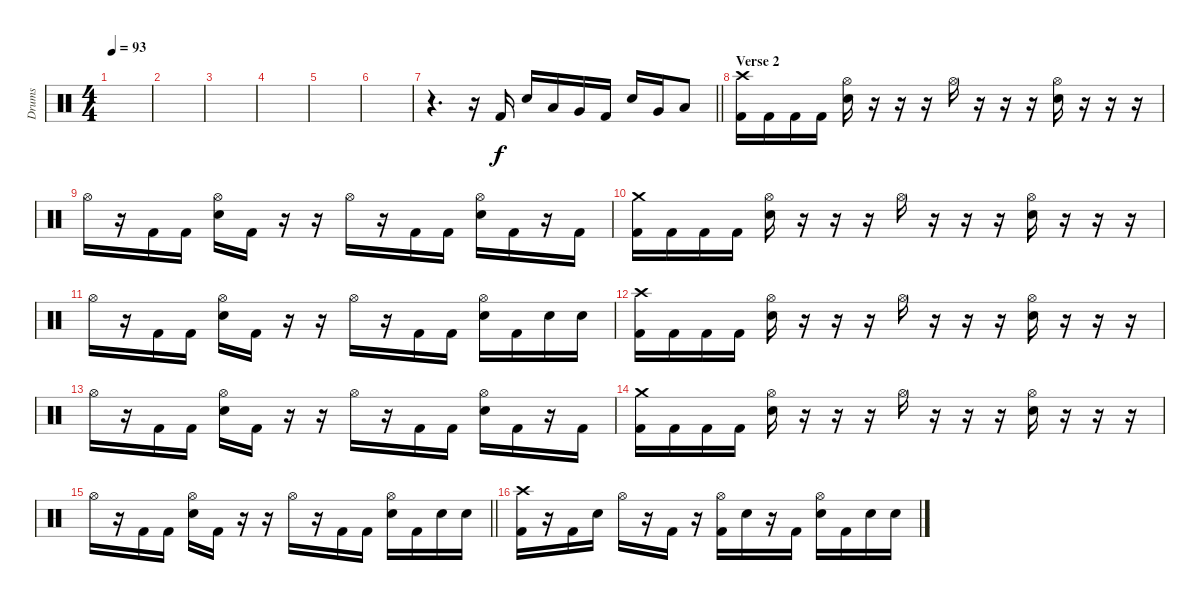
\track ("Drums" "Drums") {instrument percussion}
\staff {score}
\articulation defaults
\ts (4 4)
\tempo 93
\clef neutral
\ks c
|
|
|
|
|
|
\barLineRight lightlight
r.4{d} r.16 "Kick (hit) 2".16 "Snare (hit) 2".16 "Low Tom (hit)".16 "Very Low Tom (hit)".16 "Kick (hit) 2".16 "Snare (hit) 2".16 "Very Low Tom (hit)".16 "Low Floor Tom (hit)".8 |
\section ("" "Verse 2")
("Kick (hit) 2" "Crash high (hit)").16 "Kick (hit) 2".16 "Kick (hit) 2".16 "Kick (hit) 2".16 ("Hi-Hat (open)" "Snare (hit) 2").16 r.16 r.16 r.16 "Hi-Hat (open)".16 r.16 r.16 r.16 ("Hi-Hat (open)" "Snare (hit) 2").16 r.16 r.16 r.16 |
"Hi-Hat (open)".16 r.16 "Kick (hit) 2".16 "Kick (hit) 2".16 ("Hi-Hat (open)" "Snare (hit) 2").16 "Kick (hit) 2".16 r.16 r.16 "Hi-Hat (open)".16 r.16 "Kick (hit) 2".16 "Kick (hit) 2".16 ("Hi-Hat (open)" "Snare (hit) 2").16 "Kick (hit) 2".16 r.16 "Kick (hit) 2".16 |
("Kick (hit) 2" "Crash medium (hit)").16 "Kick (hit) 2".16 "Kick (hit) 2".16 "Kick (hit) 2".16 ("Hi-Hat (open)" "Snare (hit) 2").16 r.16 r.16 r.16 "Hi-Hat (open)".16 r.16 r.16 r.16 ("Hi-Hat (open)" "Snare (hit) 2").16 r.16 r.16 r.16 |
"Hi-Hat (open)".16 r.16 "Kick (hit) 2".16 "Kick (hit) 2".16 ("Hi-Hat (open)" "Snare (hit) 2").16 "Kick (hit) 2".16 r.16 r.16 "Hi-Hat (open)".16 r.16 "Kick (hit) 2".16 "Kick (hit) 2".16 ("Hi-Hat (open)" "Snare (hit) 2").16 "Kick (hit) 2".16 "Snare (hit) 2".16 "Snare (hit) 2".16 |
("Kick (hit) 2" "Crash high (hit)").16 "Kick (hit) 2".16 "Kick (hit) 2".16 "Kick (hit) 2".16 ("Hi-Hat (open)" "Snare (hit) 2").16 r.16 r.16 r.16 "Hi-Hat (open)".16 r.16 r.16 r.16 ("Hi-Hat (open)" "Snare (hit) 2").16 r.16 r.16 r.16 |
"Hi-Hat (open)".16 r.16 "Kick (hit) 2".16 "Kick (hit) 2".16 ("Hi-Hat (open)" "Snare (hit) 2").16 "Kick (hit) 2".16 r.16 r.16 "Hi-Hat (open)".16 r.16 "Kick (hit) 2".16 "Kick (hit) 2".16 ("Hi-Hat (open)" "Snare (hit) 2").16 "Kick (hit) 2".16 r.16 "Kick (hit) 2".16 |
("Kick (hit) 2" "Crash medium (hit)").16 "Kick (hit) 2".16 "Kick (hit) 2".16 "Kick (hit) 2".16 ("Hi-Hat (open)" "Snare (hit) 2").16 r.16 r.16 r.16 "Hi-Hat (open)".16 r.16 r.16 r.16 ("Hi-Hat (open)" "Snare (hit) 2").16 r.16 r.16 r.16 |
\barLineRight lightlight "Hi-Hat (open)".16
r.16 "Kick (hit) 2".16 "Kick (hit) 2".16 ("Hi-Hat (open)" "Snare (hit) 2").16 "Kick (hit) 2".16 r.16 r.16 "Hi-Hat (open)".16 r.16 "Kick (hit) 2".16 "Kick (hit) 2".16 ("Hi-Hat (open)" "Snare (hit) 2").16 "Kick (hit) 2".16 "Snare (hit) 2".16 "Snare (hit) 2".16 |
\section ("" "")
("Kick (hit) 2" "Crash high (hit)").16 r.16 "Kick (hit) 2".16 "Snare (hit) 2".16 "Hi-Hat (open)".16 r.16 "Kick (hit) 2".16 r.16 ("Hi-Hat (open)" "Kick (hit) 2").16 "Snare (hit) 2".16 r.16 "Kick (hit) 2".16 ("Hi-Hat (open)" "Snare (hit) 2").16 "Kick (hit) 2".16 "Snare (hit) 2".16 "Snare (hit) 2".16
